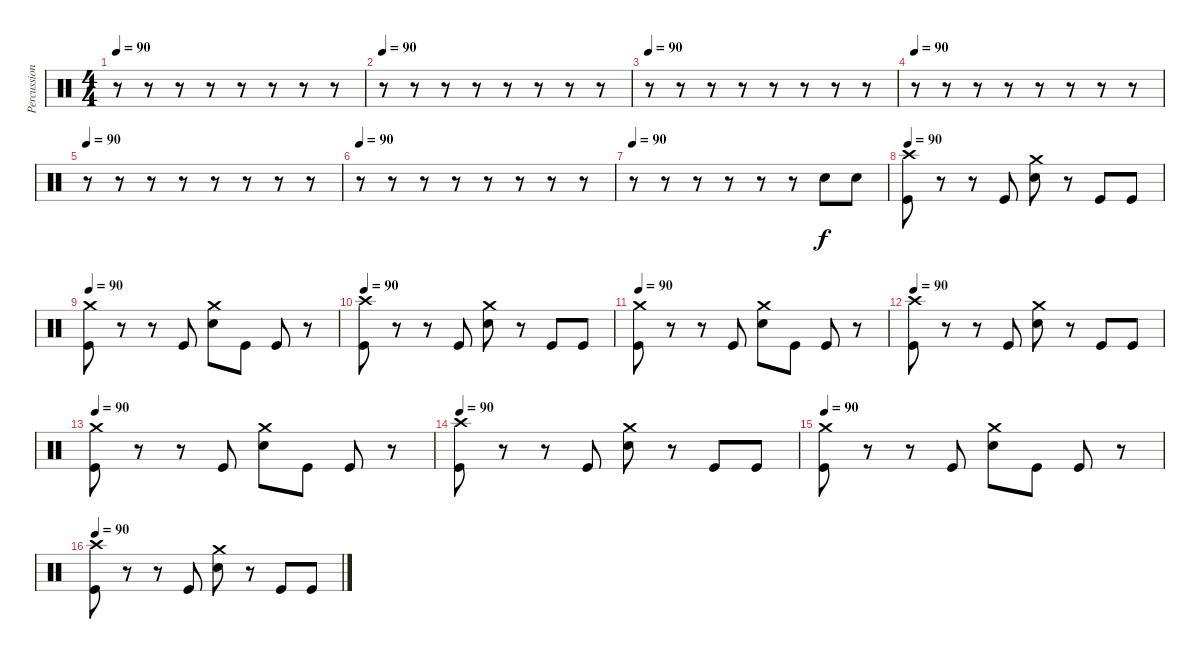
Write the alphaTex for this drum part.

\track ("Percussion" "Percussion") {instrument percussion}
\staff {score}
\articulation defaults
\ts (4 4)
\tempo 90
\clef neutral
\ks c
r.8{dy f} r.8 r.8 r.8 r.8 r.8 r.8 r.8 |
\tempo 90
r.8 r.8 r.8 r.8 r.8 r.8 r.8 r.8 |
\tempo 90
r.8 r.8 r.8 r.8 r.8 r.8 r.8 r.8 |
\tempo 90
r.8 r.8 r.8 r.8 r.8 r.8 r.8 r.8 |
\tempo 90
r.8 r.8 r.8 r.8 r.8 r.8 r.8 r.8 |
\tempo 90
r.8 r.8 r.8 r.8 r.8 r.8 r.8 r.8 |
\tempo 90
r.8 r.8 r.8 r.8 r.8 r.8 "Snare (hit) 2".8 "Snare (hit) 2".8 |
\tempo 90
("Crash high (hit)" "Kick (hit)").8 r.8 r.8 "Kick (hit)".8 ("Crash medium (hit)" "Snare (hit) 2").8 r.8 "Kick (hit)".8 "Kick (hit)".8 |
\tempo 90
("Crash medium (hit)" "Kick (hit)").8 r.8 r.8 "Kick (hit)".8 ("Crash medium (hit)" "Snare (hit) 2").8 "Kick (hit)".8 "Kick (hit)".8 r.8 |
\tempo 90
("Crash high (hit)" "Kick (hit)").8 r.8 r.8 "Kick (hit)".8 ("Crash medium (hit)" "Snare (hit) 2").8 r.8 "Kick (hit)".8 "Kick (hit)".8 |
\tempo 90
("Crash medium (hit)" "Kick (hit)").8 r.8 r.8 "Kick (hit)".8 ("Crash medium (hit)" "Snare (hit) 2").8 "Kick (hit)".8 "Kick (hit)".8 r.8 |
\tempo 90
("Crash high (hit)" "Kick (hit)").8 r.8 r.8 "Kick (hit)".8 ("Crash medium (hit)" "Snare (hit) 2").8 r.8 "Kick (hit)".8 "Kick (hit)".8 |
\tempo 90
("Crash medium (hit)" "Kick (hit)").8 r.8 r.8 "Kick (hit)".8 ("Crash medium (hit)" "Snare (hit) 2").8 "Kick (hit)".8 "Kick (hit)".8 r.8 |
\tempo 90
("Crash high (hit)" "Kick (hit)").8 r.8 r.8 "Kick (hit)".8 ("Crash medium (hit)" "Snare (hit) 2").8 r.8 "Kick (hit)".8 "Kick (hit)".8 |
\tempo 90
("Crash medium (hit)" "Kick (hit)").8 r.8 r.8 "Kick (hit)".8 ("Crash medium (hit)" "Snare (hit) 2").8 "Kick (hit)".8 "Kick (hit)".8 r.8 |
\tempo 90
("Crash high (hit)" "Kick (hit)").8 r.8 r.8 "Kick (hit)".8 ("Crash medium (hit)" "Snare (hit) 2").8 r.8 "Kick (hit)".8 "Kick (hit)".8
